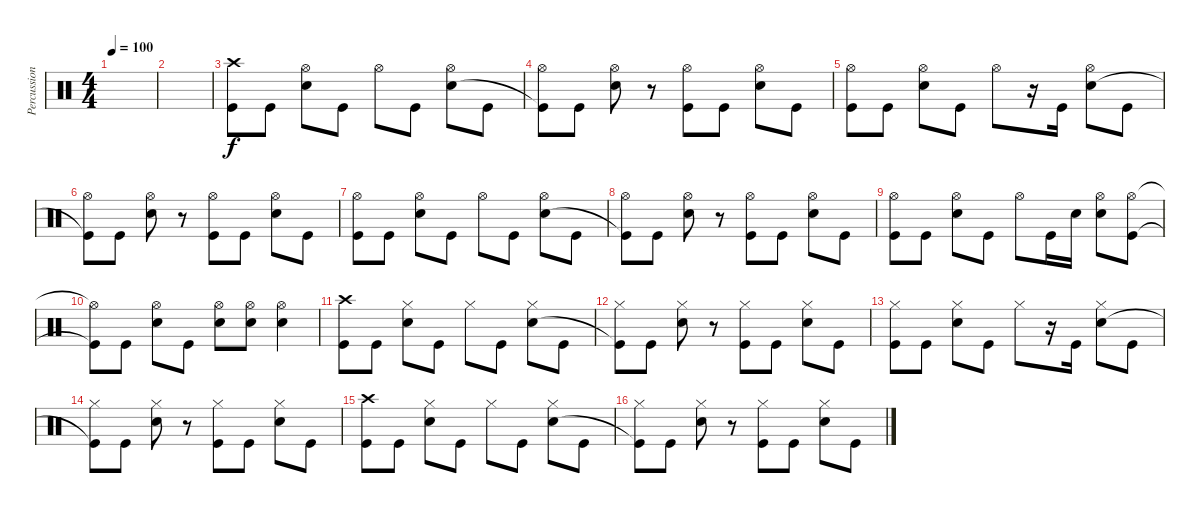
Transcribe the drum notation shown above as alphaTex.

\track ("Percussion" "Percussion") {instrument percussion}
\staff {score}
\articulation defaults
\ts (4 4)
\tempo 100
\clef neutral
\ks c
|
|
("Crash high (hit)" "Kick (hit)").8 "Kick (hit)".8 ("Hi-Hat (open)" "Electric Snare (hit)").8 "Kick (hit)".8 "Hi-Hat (open)".8 "Kick (hit)".8 ("Hi-Hat (open)" "Electric Snare (hit)").8 "Kick (hit)".8 |
("Hi-Hat (open)" "Kick (hit)"{t}).8 "Kick (hit)".8 ("Hi-Hat (open)" "Electric Snare (hit)").8 r.8 ("Hi-Hat (open)" "Kick (hit)").8 "Kick (hit)".8 ("Hi-Hat (open)" "Electric Snare (hit)").8 "Kick (hit)".8 |
("Hi-Hat (open)" "Kick (hit)").8 "Kick (hit)".8 ("Hi-Hat (open)" "Electric Snare (hit)").8 "Kick (hit)".8 "Hi-Hat (open)".8 r.16 "Kick (hit)".16 ("Hi-Hat (open)" "Electric Snare (hit)").8 "Kick (hit)".8 |
("Hi-Hat (open)" "Kick (hit)"{t}).8 "Kick (hit)".8 ("Hi-Hat (open)" "Electric Snare (hit)").8 r.8 ("Hi-Hat (open)" "Kick (hit)").8 "Kick (hit)".8 ("Hi-Hat (open)" "Electric Snare (hit)").8 "Kick (hit)".8 |
("Hi-Hat (open)" "Kick (hit)").8 "Kick (hit)".8 ("Hi-Hat (open)" "Electric Snare (hit)").8 "Kick (hit)".8 "Hi-Hat (open)".8 "Kick (hit)".8 ("Hi-Hat (open)" "Electric Snare (hit)").8 "Kick (hit)".8 |
("Hi-Hat (open)" "Kick (hit)"{t}).8 "Kick (hit)".8 ("Hi-Hat (open)" "Electric Snare (hit)").8 r.8 ("Hi-Hat (open)" "Kick (hit)").8 "Kick (hit)".8 ("Hi-Hat (open)" "Electric Snare (hit)").8 "Kick (hit)".8 |
("Hi-Hat (open)" "Kick (hit)").8 "Kick (hit)".8 ("Hi-Hat (open)" "Electric Snare (hit)").8 "Kick (hit)".8 "Hi-Hat (open)".8 "Kick (hit)".16 "Electric Snare (hit)".16 ("Hi-Hat (open)" "Electric Snare (hit)").8 ("Hi-Hat (open)" "Kick (hit)").8 |
("Hi-Hat (open)"{t} "Kick (hit)"{t}).8 "Kick (hit)".8 ("Hi-Hat (open)" "Electric Snare (hit)").8 "Kick (hit)".8 ("Hi-Hat (open)" "Electric Snare (hit)").8 ("Hi-Hat (open)" "Electric Snare (hit)").8 ("Hi-Hat (open)" "Electric Snare (hit)").4 |
("Crash high (hit)" "Kick (hit)").8 "Kick (hit)".8 ("Hi-Hat (closed)" "Electric Snare (hit)").8 "Kick (hit)".8 "Hi-Hat (closed)".8 "Kick (hit)".8 ("Hi-Hat (closed)" "Electric Snare (hit)").8 "Kick (hit)".8 |
("Hi-Hat (closed)" "Kick (hit)"{t}).8 "Kick (hit)".8 ("Hi-Hat (closed)" "Electric Snare (hit)").8 r.8 ("Hi-Hat (closed)" "Kick (hit)").8 "Kick (hit)".8 ("Hi-Hat (closed)" "Electric Snare (hit)").8 "Kick (hit)".8 |
("Hi-Hat (closed)" "Kick (hit)").8 "Kick (hit)".8 ("Hi-Hat (closed)" "Electric Snare (hit)").8 "Kick (hit)".8 "Hi-Hat (closed)".8 r.16 "Kick (hit)".16 ("Hi-Hat (closed)" "Electric Snare (hit)").8 "Kick (hit)".8 |
("Hi-Hat (closed)" "Kick (hit)"{t}).8 "Kick (hit)".8 ("Hi-Hat (closed)" "Electric Snare (hit)").8 r.8 ("Hi-Hat (closed)" "Kick (hit)").8 "Kick (hit)".8 ("Hi-Hat (closed)" "Electric Snare (hit)").8 "Kick (hit)".8 |
("Crash high (hit)" "Kick (hit)").8 "Kick (hit)".8 ("Hi-Hat (closed)" "Electric Snare (hit)").8 "Kick (hit)".8 "Hi-Hat (closed)".8 "Kick (hit)".8 ("Hi-Hat (closed)" "Electric Snare (hit)").8 "Kick (hit)".8 |
("Hi-Hat (closed)" "Kick (hit)"{t}).8 "Kick (hit)".8 ("Hi-Hat (closed)" "Electric Snare (hit)").8 r.8 ("Hi-Hat (closed)" "Kick (hit)").8 "Kick (hit)".8 ("Hi-Hat (closed)" "Electric Snare (hit)").8 "Kick (hit)".8
